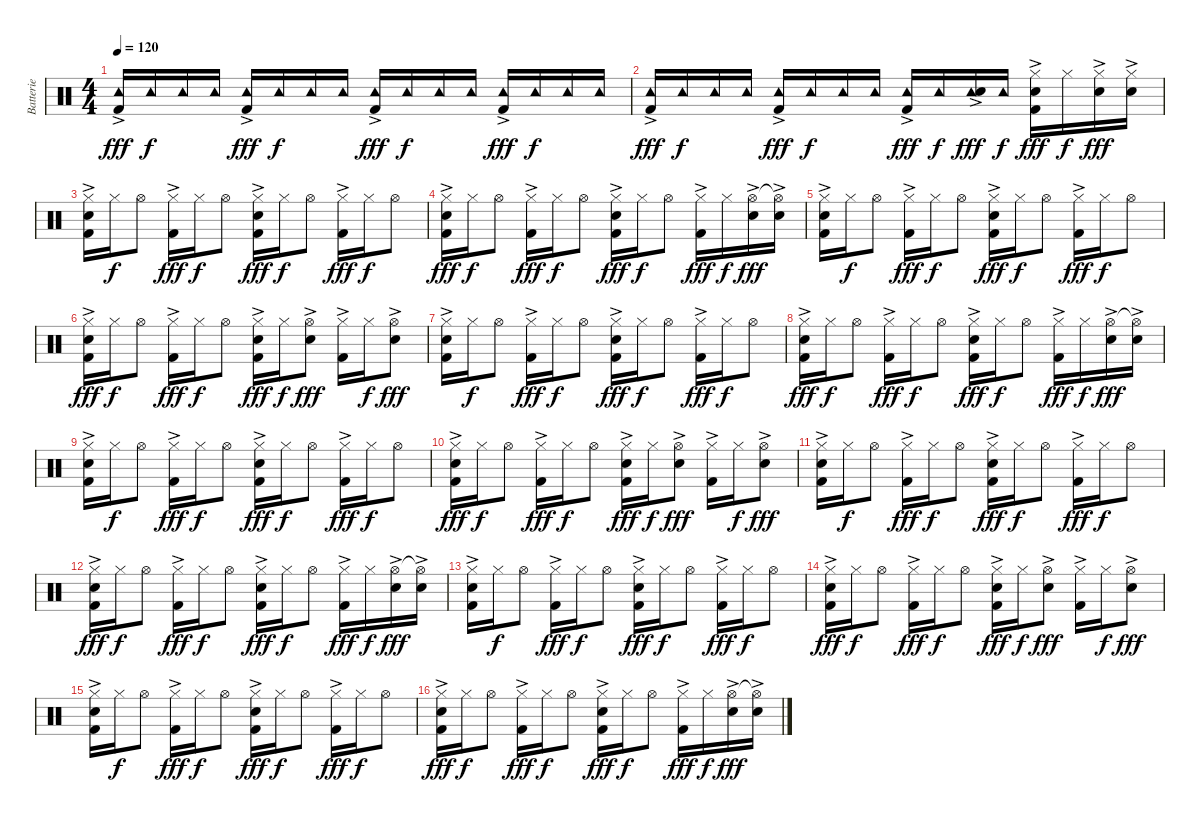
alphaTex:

\track ("Batterie" "Batterie") {instrument percussion}
\staff {score}
\articulation defaults
\ts (4 4)
\tempo 120
\clef neutral
\ks c
("Tambourine (hit)" "Kick (hit) 2"{ac}).16{dy fff} "Tambourine (hit)".16{dy f} "Tambourine (hit)".16 "Tambourine (hit)".16 ("Tambourine (hit)" "Kick (hit) 2"{ac}).16{dy fff} "Tambourine (hit)".16{dy f} "Tambourine (hit)".16 "Tambourine (hit)".16 ("Tambourine (hit)" "Kick (hit) 2"{ac}).16{dy fff} "Tambourine (hit)".16{dy f} "Tambourine (hit)".16 "Tambourine (hit)".16 ("Tambourine (hit)" "Kick (hit) 2"{ac}).16{dy fff} "Tambourine (hit)".16{dy f} "Tambourine (hit)".16 "Tambourine (hit)".16 |
("Tambourine (hit)" "Kick (hit) 2"{ac}).16{dy fff} "Tambourine (hit)".16{dy f} "Tambourine (hit)".16 "Tambourine (hit)".16 ("Tambourine (hit)" "Kick (hit) 2"{ac}).16{dy fff} "Tambourine (hit)".16{dy f} "Tambourine (hit)".16 "Tambourine (hit)".16 ("Tambourine (hit)" "Kick (hit) 2"{ac}).16{dy fff} "Tambourine (hit)".16{dy f} ("Tambourine (hit)"{ac} "Electric Snare (hit)"{ac}).16{dy fff} "Tambourine (hit)".16{dy f} ("Hi-Hat (closed)"{ac} "Electric Snare (hit)"{ac} "Kick (hit) 2"{ac}).16{dy fff} "Hi-Hat (closed)".16{dy f} ("Hi-Hat (closed)" "Electric Snare (hit)"{ac}).16{dy fff} ("Hi-Hat (closed)" "Electric Snare (hit)"{ac}).16 |
("Hi-Hat (closed)" "Electric Snare (hit)"{ac} "Kick (hit) 2"{ac}).16 "Hi-Hat (closed)".16{dy f} "Hi-Hat (open)".8 ("Hi-Hat (closed)" "Kick (hit) 2"{ac}).16{dy fff} "Hi-Hat (closed)".16{dy f} "Hi-Hat (open)".8 ("Hi-Hat (closed)" "Electric Snare (hit)"{ac} "Kick (hit) 2"{ac}).16{dy fff} "Hi-Hat (closed)".16{dy f} "Hi-Hat (open)".8 ("Hi-Hat (closed)" "Kick (hit) 2"{ac}).16{dy fff} "Hi-Hat (closed)".16{dy f} "Hi-Hat (open)".8 |
("Hi-Hat (closed)" "Electric Snare (hit)"{ac} "Kick (hit) 2"{ac}).16{dy fff} "Hi-Hat (closed)".16{dy f} "Hi-Hat (open)".8 ("Hi-Hat (closed)" "Kick (hit) 2"{ac}).16{dy fff} "Hi-Hat (closed)".16{dy f} "Hi-Hat (open)".8 ("Hi-Hat (closed)" "Electric Snare (hit)"{ac} "Kick (hit) 2"{ac}).16{dy fff} "Hi-Hat (closed)".16{dy f} "Hi-Hat (open)".8 ("Hi-Hat (closed)" "Kick (hit) 2"{ac}).16{dy fff} "Hi-Hat (closed)".16{dy f} ("Hi-Hat (open)" "Electric Snare (hit)"{ac}).16{dy fff} ("Hi-Hat (open)"{t} "Electric Snare (hit)"{ac}).16 |
("Hi-Hat (closed)" "Electric Snare (hit)"{ac} "Kick (hit) 2"{ac}).16 "Hi-Hat (closed)".16{dy f} "Hi-Hat (open)".8 ("Hi-Hat (closed)" "Kick (hit) 2"{ac}).16{dy fff} "Hi-Hat (closed)".16{dy f} "Hi-Hat (open)".8 ("Hi-Hat (closed)" "Electric Snare (hit)"{ac} "Kick (hit) 2"{ac}).16{dy fff} "Hi-Hat (closed)".16{dy f} "Hi-Hat (open)".8 ("Hi-Hat (closed)" "Kick (hit) 2"{ac}).16{dy fff} "Hi-Hat (closed)".16{dy f} "Hi-Hat (open)".8 |
("Hi-Hat (closed)" "Electric Snare (hit)"{ac} "Kick (hit) 2"{ac}).16{dy fff} "Hi-Hat (closed)".16{dy f} "Hi-Hat (open)".8 ("Hi-Hat (closed)" "Kick (hit) 2"{ac}).16{dy fff} "Hi-Hat (closed)".16{dy f} "Hi-Hat (open)".8 ("Hi-Hat (closed)" "Electric Snare (hit)"{ac} "Kick (hit) 2"{ac}).16{dy fff} "Hi-Hat (closed)".16{dy f} ("Hi-Hat (open)" "Electric Snare (hit)"{ac}).8{dy fff} ("Hi-Hat (closed)" "Kick (hit) 2"{ac}).16 "Hi-Hat (closed)".16{dy f} ("Hi-Hat (open)" "Electric Snare (hit)"{ac}).8{dy fff} |
("Hi-Hat (closed)" "Electric Snare (hit)"{ac} "Kick (hit) 2"{ac}).16 "Hi-Hat (closed)".16{dy f} "Hi-Hat (open)".8 ("Hi-Hat (closed)" "Kick (hit) 2"{ac}).16{dy fff} "Hi-Hat (closed)".16{dy f} "Hi-Hat (open)".8 ("Hi-Hat (closed)" "Electric Snare (hit)"{ac} "Kick (hit) 2"{ac}).16{dy fff} "Hi-Hat (closed)".16{dy f} "Hi-Hat (open)".8 ("Hi-Hat (closed)" "Kick (hit) 2"{ac}).16{dy fff} "Hi-Hat (closed)".16{dy f} "Hi-Hat (open)".8 |
("Hi-Hat (closed)" "Electric Snare (hit)"{ac} "Kick (hit) 2"{ac}).16{dy fff} "Hi-Hat (closed)".16{dy f} "Hi-Hat (open)".8 ("Hi-Hat (closed)" "Kick (hit) 2"{ac}).16{dy fff} "Hi-Hat (closed)".16{dy f} "Hi-Hat (open)".8 ("Hi-Hat (closed)" "Electric Snare (hit)"{ac} "Kick (hit) 2"{ac}).16{dy fff} "Hi-Hat (closed)".16{dy f} "Hi-Hat (open)".8 ("Hi-Hat (closed)" "Kick (hit) 2"{ac}).16{dy fff} "Hi-Hat (closed)".16{dy f} ("Hi-Hat (open)" "Electric Snare (hit)"{ac}).16{dy fff} ("Hi-Hat (open)"{t} "Electric Snare (hit)"{ac}).16 |
("Hi-Hat (closed)" "Electric Snare (hit)"{ac} "Kick (hit) 2"{ac}).16 "Hi-Hat (closed)".16{dy f} "Hi-Hat (open)".8 ("Hi-Hat (closed)" "Kick (hit) 2"{ac}).16{dy fff} "Hi-Hat (closed)".16{dy f} "Hi-Hat (open)".8 ("Hi-Hat (closed)" "Electric Snare (hit)"{ac} "Kick (hit) 2"{ac}).16{dy fff} "Hi-Hat (closed)".16{dy f} "Hi-Hat (open)".8 ("Hi-Hat (closed)" "Kick (hit) 2"{ac}).16{dy fff} "Hi-Hat (closed)".16{dy f} "Hi-Hat (open)".8 |
("Hi-Hat (closed)" "Electric Snare (hit)"{ac} "Kick (hit) 2"{ac}).16{dy fff} "Hi-Hat (closed)".16{dy f} "Hi-Hat (open)".8 ("Hi-Hat (closed)" "Kick (hit) 2"{ac}).16{dy fff} "Hi-Hat (closed)".16{dy f} "Hi-Hat (open)".8 ("Hi-Hat (closed)" "Electric Snare (hit)"{ac} "Kick (hit) 2"{ac}).16{dy fff} "Hi-Hat (closed)".16{dy f} ("Hi-Hat (open)" "Electric Snare (hit)"{ac}).8{dy fff} ("Hi-Hat (closed)" "Kick (hit) 2"{ac}).16 "Hi-Hat (closed)".16{dy f} ("Hi-Hat (open)" "Electric Snare (hit)"{ac}).8{dy fff} |
("Hi-Hat (closed)" "Electric Snare (hit)"{ac} "Kick (hit) 2"{ac}).16 "Hi-Hat (closed)".16{dy f} "Hi-Hat (open)".8 ("Hi-Hat (closed)" "Kick (hit) 2"{ac}).16{dy fff} "Hi-Hat (closed)".16{dy f} "Hi-Hat (open)".8 ("Hi-Hat (closed)" "Electric Snare (hit)"{ac} "Kick (hit) 2"{ac}).16{dy fff} "Hi-Hat (closed)".16{dy f} "Hi-Hat (open)".8 ("Hi-Hat (closed)" "Kick (hit) 2"{ac}).16{dy fff} "Hi-Hat (closed)".16{dy f} "Hi-Hat (open)".8 |
("Hi-Hat (closed)" "Electric Snare (hit)"{ac} "Kick (hit) 2"{ac}).16{dy fff} "Hi-Hat (closed)".16{dy f} "Hi-Hat (open)".8 ("Hi-Hat (closed)" "Kick (hit) 2"{ac}).16{dy fff} "Hi-Hat (closed)".16{dy f} "Hi-Hat (open)".8 ("Hi-Hat (closed)" "Electric Snare (hit)"{ac} "Kick (hit) 2"{ac}).16{dy fff} "Hi-Hat (closed)".16{dy f} "Hi-Hat (open)".8 ("Hi-Hat (closed)" "Kick (hit) 2"{ac}).16{dy fff} "Hi-Hat (closed)".16{dy f} ("Hi-Hat (open)" "Electric Snare (hit)"{ac}).16{dy fff} ("Hi-Hat (open)"{t} "Electric Snare (hit)"{ac}).16 |
("Hi-Hat (closed)" "Electric Snare (hit)"{ac} "Kick (hit) 2"{ac}).16 "Hi-Hat (closed)".16{dy f} "Hi-Hat (open)".8 ("Hi-Hat (closed)" "Kick (hit) 2"{ac}).16{dy fff} "Hi-Hat (closed)".16{dy f} "Hi-Hat (open)".8 ("Hi-Hat (closed)" "Electric Snare (hit)"{ac} "Kick (hit) 2"{ac}).16{dy fff} "Hi-Hat (closed)".16{dy f} "Hi-Hat (open)".8 ("Hi-Hat (closed)" "Kick (hit) 2"{ac}).16{dy fff} "Hi-Hat (closed)".16{dy f} "Hi-Hat (open)".8 |
("Hi-Hat (closed)" "Electric Snare (hit)"{ac} "Kick (hit) 2"{ac}).16{dy fff} "Hi-Hat (closed)".16{dy f} "Hi-Hat (open)".8 ("Hi-Hat (closed)" "Kick (hit) 2"{ac}).16{dy fff} "Hi-Hat (closed)".16{dy f} "Hi-Hat (open)".8 ("Hi-Hat (closed)" "Electric Snare (hit)"{ac} "Kick (hit) 2"{ac}).16{dy fff} "Hi-Hat (closed)".16{dy f} ("Hi-Hat (open)" "Electric Snare (hit)"{ac}).8{dy fff} ("Hi-Hat (closed)" "Kick (hit) 2"{ac}).16 "Hi-Hat (closed)".16{dy f} ("Hi-Hat (open)" "Electric Snare (hit)"{ac}).8{dy fff} |
("Hi-Hat (closed)" "Electric Snare (hit)"{ac} "Kick (hit) 2"{ac}).16 "Hi-Hat (closed)".16{dy f} "Hi-Hat (open)".8 ("Hi-Hat (closed)" "Kick (hit) 2"{ac}).16{dy fff} "Hi-Hat (closed)".16{dy f} "Hi-Hat (open)".8 ("Hi-Hat (closed)" "Electric Snare (hit)"{ac} "Kick (hit) 2"{ac}).16{dy fff} "Hi-Hat (closed)".16{dy f} "Hi-Hat (open)".8 ("Hi-Hat (closed)" "Kick (hit) 2"{ac}).16{dy fff} "Hi-Hat (closed)".16{dy f} "Hi-Hat (open)".8 |
("Hi-Hat (closed)" "Electric Snare (hit)"{ac} "Kick (hit) 2"{ac}).16{dy fff} "Hi-Hat (closed)".16{dy f} "Hi-Hat (open)".8 ("Hi-Hat (closed)" "Kick (hit) 2"{ac}).16{dy fff} "Hi-Hat (closed)".16{dy f} "Hi-Hat (open)".8 ("Hi-Hat (closed)" "Electric Snare (hit)"{ac} "Kick (hit) 2"{ac}).16{dy fff} "Hi-Hat (closed)".16{dy f} "Hi-Hat (open)".8 ("Hi-Hat (closed)" "Kick (hit) 2"{ac}).16{dy fff} "Hi-Hat (closed)".16{dy f} ("Hi-Hat (open)" "Electric Snare (hit)"{ac}).16{dy fff} ("Hi-Hat (open)"{t} "Electric Snare (hit)"{ac}).16
